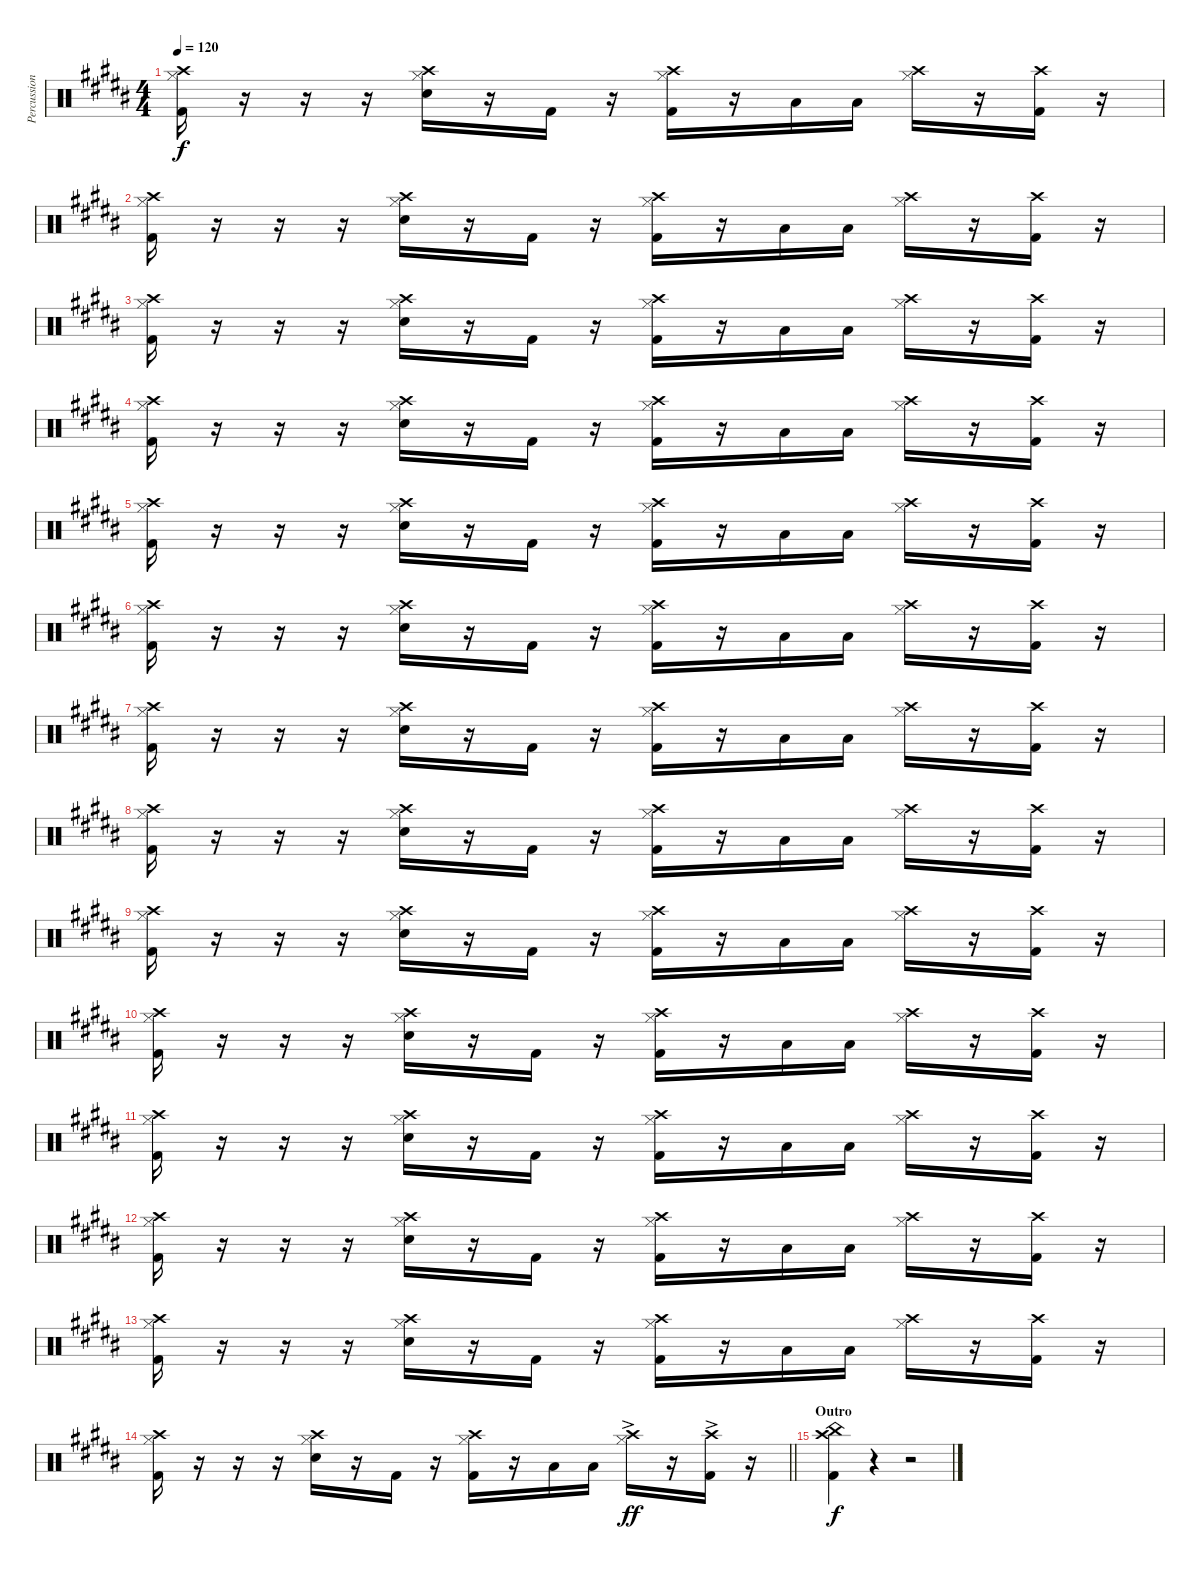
\track ("Percussion" "Percussion") {instrument percussion}
\staff {score}
\articulation defaults
\ts (4 4)
\tempo 120
\clef neutral
\ks b
("Crash high (hit)" "Hi-Hat (closed)" "Kick (hit) 2").16{dy f} r.16 r.16 r.16 ("Crash high (hit)" "Hi-Hat (closed)" "Electric Snare (hit)").16 r.16 "Kick (hit) 2".16 r.16 ("Crash high (hit)" "Hi-Hat (closed)" "Kick (hit) 2").16 r.16 "Low Tom (hit)".16 "Low Tom (hit)".16 ("Crash high (hit)" "Hi-Hat (closed)").16 r.16 ("Crash high (hit)" "Kick (hit) 2").16 r.16 |
("Crash high (hit)" "Hi-Hat (closed)" "Kick (hit) 2").16 r.16 r.16 r.16 ("Crash high (hit)" "Hi-Hat (closed)" "Electric Snare (hit)").16 r.16 "Kick (hit) 2".16 r.16 ("Crash high (hit)" "Hi-Hat (closed)" "Kick (hit) 2").16 r.16 "Low Tom (hit)".16 "Low Tom (hit)".16 ("Crash high (hit)" "Hi-Hat (closed)").16 r.16 ("Crash high (hit)" "Kick (hit) 2").16 r.16 |
("Crash high (hit)" "Hi-Hat (closed)" "Kick (hit) 2").16 r.16 r.16 r.16 ("Crash high (hit)" "Hi-Hat (closed)" "Electric Snare (hit)").16 r.16 "Kick (hit) 2".16 r.16 ("Crash high (hit)" "Hi-Hat (closed)" "Kick (hit) 2").16 r.16 "Low Tom (hit)".16 "Low Tom (hit)".16 ("Crash high (hit)" "Hi-Hat (closed)").16 r.16 ("Crash high (hit)" "Kick (hit) 2").16 r.16 |
("Crash high (hit)" "Hi-Hat (closed)" "Kick (hit) 2").16 r.16 r.16 r.16 ("Crash high (hit)" "Hi-Hat (closed)" "Electric Snare (hit)").16 r.16 "Kick (hit) 2".16 r.16 ("Crash high (hit)" "Hi-Hat (closed)" "Kick (hit) 2").16 r.16 "Low Tom (hit)".16 "Low Tom (hit)".16 ("Crash high (hit)" "Hi-Hat (closed)").16 r.16 ("Crash high (hit)" "Kick (hit) 2").16 r.16 |
("Crash high (hit)" "Hi-Hat (closed)" "Kick (hit) 2").16 r.16 r.16 r.16 ("Crash high (hit)" "Hi-Hat (closed)" "Electric Snare (hit)").16 r.16 "Kick (hit) 2".16 r.16 ("Crash high (hit)" "Hi-Hat (closed)" "Kick (hit) 2").16 r.16 "Low Tom (hit)".16 "Low Tom (hit)".16 ("Crash high (hit)" "Hi-Hat (closed)").16 r.16 ("Crash high (hit)" "Kick (hit) 2").16 r.16 |
("Crash high (hit)" "Hi-Hat (closed)" "Kick (hit) 2").16 r.16 r.16 r.16 ("Crash high (hit)" "Hi-Hat (closed)" "Electric Snare (hit)").16 r.16 "Kick (hit) 2".16 r.16 ("Crash high (hit)" "Hi-Hat (closed)" "Kick (hit) 2").16 r.16 "Low Tom (hit)".16 "Low Tom (hit)".16 ("Crash high (hit)" "Hi-Hat (closed)").16 r.16 ("Crash high (hit)" "Kick (hit) 2").16 r.16 |
("Crash high (hit)" "Hi-Hat (closed)" "Kick (hit) 2").16 r.16 r.16 r.16 ("Crash high (hit)" "Hi-Hat (closed)" "Electric Snare (hit)").16 r.16 "Kick (hit) 2".16 r.16 ("Crash high (hit)" "Hi-Hat (closed)" "Kick (hit) 2").16 r.16 "Low Tom (hit)".16 "Low Tom (hit)".16 ("Crash high (hit)" "Hi-Hat (closed)").16 r.16 ("Crash high (hit)" "Kick (hit) 2").16 r.16 |
("Crash high (hit)" "Hi-Hat (closed)" "Kick (hit) 2").16 r.16 r.16 r.16 ("Crash high (hit)" "Hi-Hat (closed)" "Electric Snare (hit)").16 r.16 "Kick (hit) 2".16 r.16 ("Crash high (hit)" "Hi-Hat (closed)" "Kick (hit) 2").16 r.16 "Low Tom (hit)".16 "Low Tom (hit)".16 ("Crash high (hit)" "Hi-Hat (closed)").16 r.16 ("Crash high (hit)" "Kick (hit) 2").16 r.16 |
("Crash high (hit)" "Hi-Hat (closed)" "Kick (hit) 2").16 r.16 r.16 r.16 ("Crash high (hit)" "Hi-Hat (closed)" "Electric Snare (hit)").16 r.16 "Kick (hit) 2".16 r.16 ("Crash high (hit)" "Hi-Hat (closed)" "Kick (hit) 2").16 r.16 "Low Tom (hit)".16 "Low Tom (hit)".16 ("Crash high (hit)" "Hi-Hat (closed)").16 r.16 ("Crash high (hit)" "Kick (hit) 2").16 r.16 |
("Crash high (hit)" "Hi-Hat (closed)" "Kick (hit) 2").16 r.16 r.16 r.16 ("Crash high (hit)" "Hi-Hat (closed)" "Electric Snare (hit)").16 r.16 "Kick (hit) 2".16 r.16 ("Crash high (hit)" "Hi-Hat (closed)" "Kick (hit) 2").16 r.16 "Low Tom (hit)".16 "Low Tom (hit)".16 ("Crash high (hit)" "Hi-Hat (closed)").16 r.16 ("Crash high (hit)" "Kick (hit) 2").16 r.16 |
("Crash high (hit)" "Hi-Hat (closed)" "Kick (hit) 2").16 r.16 r.16 r.16 ("Crash high (hit)" "Hi-Hat (closed)" "Electric Snare (hit)").16 r.16 "Kick (hit) 2".16 r.16 ("Crash high (hit)" "Hi-Hat (closed)" "Kick (hit) 2").16 r.16 "Low Tom (hit)".16 "Low Tom (hit)".16 ("Crash high (hit)" "Hi-Hat (closed)").16 r.16 ("Crash high (hit)" "Kick (hit) 2").16 r.16 |
("Crash high (hit)" "Hi-Hat (closed)" "Kick (hit) 2").16 r.16 r.16 r.16 ("Crash high (hit)" "Hi-Hat (closed)" "Electric Snare (hit)").16 r.16 "Kick (hit) 2".16 r.16 ("Crash high (hit)" "Hi-Hat (closed)" "Kick (hit) 2").16 r.16 "Low Tom (hit)".16 "Low Tom (hit)".16 ("Crash high (hit)" "Hi-Hat (closed)").16 r.16 ("Crash high (hit)" "Kick (hit) 2").16 r.16 |
("Crash high (hit)" "Hi-Hat (closed)" "Kick (hit) 2").16 r.16 r.16 r.16 ("Crash high (hit)" "Hi-Hat (closed)" "Electric Snare (hit)").16 r.16 "Kick (hit) 2".16 r.16 ("Crash high (hit)" "Hi-Hat (closed)" "Kick (hit) 2").16 r.16 "Low Tom (hit)".16 "Low Tom (hit)".16 ("Crash high (hit)" "Hi-Hat (closed)").16 r.16 ("Crash high (hit)" "Kick (hit) 2").16 r.16 |
\barLineRight lightlight
("Crash high (hit)" "Hi-Hat (closed)" "Kick (hit) 2").16 r.16 r.16 r.16 ("Crash high (hit)" "Hi-Hat (closed)" "Electric Snare (hit)").16 r.16 "Kick (hit) 2".16 r.16 ("Crash high (hit)" "Hi-Hat (closed)" "Kick (hit) 2").16 r.16 "Low Tom (hit)".16 "Low Tom (hit)".16 ("Crash high (hit)"{ac} "Hi-Hat (closed)").16{dy ff} r.16 ("Crash high (hit)"{ac} "Kick (hit) 2").16 r.16 |
\section ("" "Outro")
("Crash high (hit)" "China (hit)" "Kick (hit) 2").4{dy f} r.4 r.2
